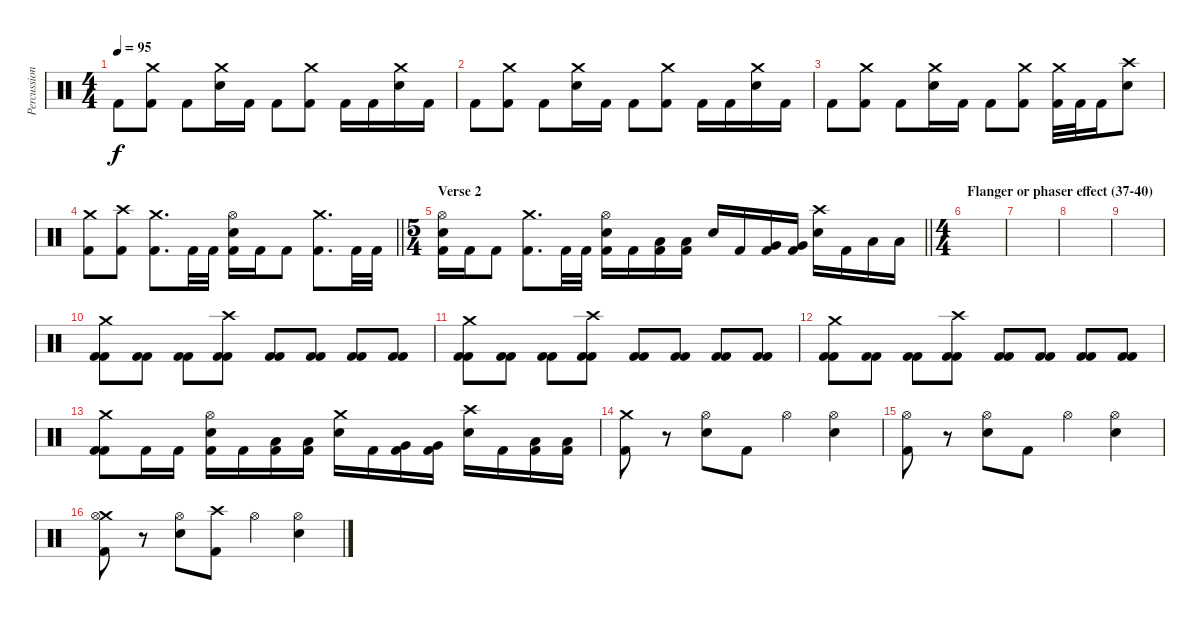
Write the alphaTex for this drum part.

\track ("Percussion" "Percussion") {instrument percussion}
\staff {score}
\articulation defaults
\ts (4 4)
\tempo 95
\clef neutral
\ks c "Kick (hit) 2".8{dy f}
("Crash medium (hit)" "Kick (hit) 2").8 "Kick (hit) 2".8 ("Crash medium (hit)" "Electric Snare (hit)").16 "Kick (hit) 2".16 "Kick (hit) 2".8 ("Crash medium (hit)" "Kick (hit) 2").8 "Kick (hit) 2".16 "Kick (hit) 2".16 ("Crash medium (hit)" "Electric Snare (hit)").16 "Kick (hit) 2".16 |
"Kick (hit) 2".8 ("Crash medium (hit)" "Kick (hit) 2").8 "Kick (hit) 2".8 ("Crash medium (hit)" "Electric Snare (hit)").16 "Kick (hit) 2".16 "Kick (hit) 2".8 ("Crash medium (hit)" "Kick (hit) 2").8 "Kick (hit) 2".16 "Kick (hit) 2".16 ("Crash medium (hit)" "Electric Snare (hit)").16 "Kick (hit) 2".16 |
"Kick (hit) 2".8 ("Crash medium (hit)" "Kick (hit) 2").8 "Kick (hit) 2".8 ("Crash medium (hit)" "Electric Snare (hit)").16 "Kick (hit) 2".16 "Kick (hit) 2".8 ("Crash medium (hit)" "Kick (hit) 2").8 ("Crash medium (hit)" "Kick (hit) 2").32 "Kick (hit) 2".32 "Kick (hit) 2".16 ("Crash high (hit)" "Electric Snare (hit)").8 |
\barLineRight lightlight
("Crash medium (hit)" "Kick (hit) 2").8 ("Crash high (hit)" "Kick (hit) 2").8 ("Crash medium (hit)" "Kick (hit) 2").8{d} "Kick (hit) 2".32 "Kick (hit) 2".32 ("Hi-Hat (open)" "Electric Snare (hit)" "Kick (hit) 2").16 "Kick (hit) 2".16 "Kick (hit) 2".8 ("Crash medium (hit)" "Kick (hit) 2").8{d} "Kick (hit) 2".32 "Kick (hit) 2".32 |
\ts (5 4)
\section ("" "Verse 2")
\barLineRight lightlight
("Hi-Hat (open)" "Electric Snare (hit)" "Kick (hit) 2").16 "Kick (hit) 2".16 "Kick (hit) 2".8 ("Crash medium (hit)" "Kick (hit) 2").8{d} "Kick (hit) 2".32 "Kick (hit) 2".32 ("Hi-Hat (open)" "Electric Snare (hit)" "Kick (hit) 2").16 "Kick (hit) 2".16 ("Low Tom (hit)" "Kick (hit) 2").16 ("Low Tom (hit)" "Kick (hit) 2").16 "Electric Snare (hit)".16 "Kick (hit) 2".16 ("Very Low Tom (hit)" "Kick (hit) 2").16 ("Very Low Tom (hit)" "Kick (hit) 2").16 ("Crash high (hit)" "Electric Snare (hit)").16 "Kick (hit) 2".16 "Low Floor Tom (hit)".16 "Low Floor Tom (hit)".16 |
\ts (4 4)
\section ("" "Flanger or phaser effect (37-40)")
|
|
|
|
("Crash medium (hit)" "Kick (hit) 2" "Kick (hit) 2").8 ("Kick (hit) 2" "Kick (hit) 2").8 ("Kick (hit) 2" "Kick (hit) 2").8 ("Crash high (hit)" "Kick (hit) 2" "Kick (hit) 2").8 ("Kick (hit) 2" "Kick (hit) 2").8 ("Kick (hit) 2" "Kick (hit) 2").8 ("Kick (hit) 2" "Kick (hit) 2").8 ("Kick (hit) 2" "Kick (hit) 2").8 |
("Crash medium (hit)" "Kick (hit) 2" "Kick (hit) 2").8 ("Kick (hit) 2" "Kick (hit) 2").8 ("Kick (hit) 2" "Kick (hit) 2").8 ("Crash high (hit)" "Kick (hit) 2" "Kick (hit) 2").8 ("Kick (hit) 2" "Kick (hit) 2").8 ("Kick (hit) 2" "Kick (hit) 2").8 ("Kick (hit) 2" "Kick (hit) 2").8 ("Kick (hit) 2" "Kick (hit) 2").8 |
("Crash medium (hit)" "Kick (hit) 2" "Kick (hit) 2").8 ("Kick (hit) 2" "Kick (hit) 2").8 ("Kick (hit) 2" "Kick (hit) 2").8 ("Crash high (hit)" "Kick (hit) 2" "Kick (hit) 2").8 ("Kick (hit) 2" "Kick (hit) 2").8 ("Kick (hit) 2" "Kick (hit) 2").8 ("Kick (hit) 2" "Kick (hit) 2").8 ("Kick (hit) 2" "Kick (hit) 2").8 |
("Crash medium (hit)" "Kick (hit) 2" "Kick (hit) 2").8 "Kick (hit) 2".16 "Kick (hit) 2".16 ("Hi-Hat (open)" "Electric Snare (hit)" "Kick (hit) 2").16 "Kick (hit) 2".16 ("Low Tom (hit)" "Kick (hit) 2").16 ("Low Tom (hit)" "Kick (hit) 2").16 ("Crash medium (hit)" "Electric Snare (hit)").16 "Kick (hit) 2".16 ("Very Low Tom (hit)" "Kick (hit) 2").16 ("Very Low Tom (hit)" "Kick (hit) 2").16 ("Crash high (hit)" "Electric Snare (hit)").16 "Kick (hit) 2".16 ("Low Tom (hit)" "Kick (hit) 2").16 ("Low Tom (hit)" "Kick (hit) 2").16 |
("Crash medium (hit)" "Kick (hit) 2").8 r.8 ("Hi-Hat (open)" "Electric Snare (hit)").8 "Kick (hit) 2".8 "Hi-Hat (open)".4 ("Hi-Hat (open)" "Electric Snare (hit)").4 |
("Hi-Hat (open)" "Kick (hit) 2").8 r.8 ("Hi-Hat (open)" "Electric Snare (hit)").8 "Kick (hit) 2".8 "Hi-Hat (open)".4 ("Hi-Hat (open)" "Electric Snare (hit)").4 |
("Crash medium (hit)" "Hi-Hat (open)" "Kick (hit) 2").8 r.8 ("Hi-Hat (open)" "Electric Snare (hit)").8 ("Crash high (hit)" "Kick (hit) 2").8 "Hi-Hat (open)".4 ("Hi-Hat (open)" "Electric Snare (hit)").4
